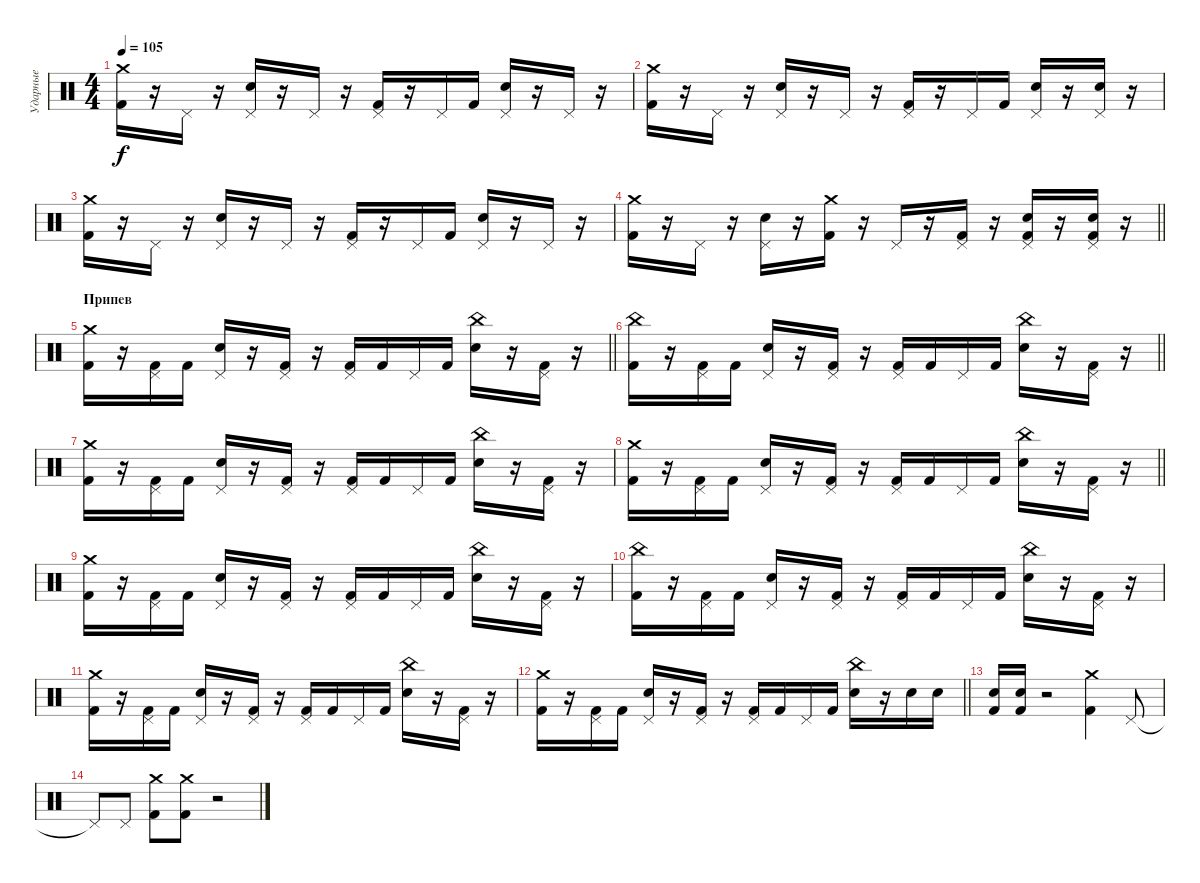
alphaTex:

\track ("Ударные" "Ударные") {instrument percussion}
\staff {score}
\articulation defaults
\ts (4 4)
\tempo 105
\clef neutral
\ks c
("Crash medium (hit)" "Kick (hit) 2").16{dy f} r.16 "Pedal Hi-Hat (hit)".16 r.16 ("Pedal Hi-Hat (hit)" "Electric Snare (hit)").16 r.16 "Pedal Hi-Hat (hit)".16 r.16 ("Pedal Hi-Hat (hit)" "Kick (hit) 2").16 r.16 "Pedal Hi-Hat (hit)".16 "Kick (hit) 2".16 ("Pedal Hi-Hat (hit)" "Electric Snare (hit)").16 r.16 "Pedal Hi-Hat (hit)".16 r.16 |
("Crash medium (hit)" "Kick (hit) 2").16 r.16 "Pedal Hi-Hat (hit)".16 r.16 ("Pedal Hi-Hat (hit)" "Electric Snare (hit)").16 r.16 "Pedal Hi-Hat (hit)".16 r.16 ("Pedal Hi-Hat (hit)" "Kick (hit) 2").16 r.16 "Pedal Hi-Hat (hit)".16 "Kick (hit) 2".16 ("Pedal Hi-Hat (hit)" "Electric Snare (hit)").16 r.16 ("Pedal Hi-Hat (hit)" "Electric Snare (hit)").16 r.16 |
("Crash medium (hit)" "Kick (hit) 2").16 r.16 "Pedal Hi-Hat (hit)".16 r.16 ("Pedal Hi-Hat (hit)" "Electric Snare (hit)").16 r.16 "Pedal Hi-Hat (hit)".16 r.16 ("Pedal Hi-Hat (hit)" "Kick (hit) 2").16 r.16 "Pedal Hi-Hat (hit)".16 "Kick (hit) 2".16 ("Pedal Hi-Hat (hit)" "Electric Snare (hit)").16 r.16 "Pedal Hi-Hat (hit)".16 r.16 |
\barLineRight lightlight
("Crash medium (hit)" "Kick (hit) 2").16 r.16 "Pedal Hi-Hat (hit)".16 r.16 ("Pedal Hi-Hat (hit)" "Electric Snare (hit)").16 r.16 ("Crash medium (hit)" "Kick (hit) 2").16 r.16 "Pedal Hi-Hat (hit)".16 r.16 ("Pedal Hi-Hat (hit)" "Kick (hit) 2").16 r.16 ("Pedal Hi-Hat (hit)" "Electric Snare (hit)" "Kick (hit) 2").16 r.16 ("Pedal Hi-Hat (hit)" "Electric Snare (hit)" "Kick (hit) 2").16 r.16 |
\section ("" "Припев")
\barLineRight lightlight
("Crash medium (hit)" "Kick (hit) 2").16 r.16 ("Pedal Hi-Hat (hit)" "Kick (hit) 2").16 "Kick (hit) 2".16 ("Pedal Hi-Hat (hit)" "Electric Snare (hit)").16 r.16 ("Pedal Hi-Hat (hit)" "Kick (hit) 2").16 r.16 ("Pedal Hi-Hat (hit)" "Kick (hit) 2").16 "Kick (hit) 2".16 "Pedal Hi-Hat (hit)".16 "Kick (hit) 2".16 ("China (hit)" "Electric Snare (hit)").16 r.16 ("Pedal Hi-Hat (hit)" "Kick (hit) 2").16 r.16 |
\barLineRight lightlight
("China (hit)" "Kick (hit) 2").16 r.16 ("Pedal Hi-Hat (hit)" "Kick (hit) 2").16 "Kick (hit) 2".16 ("Pedal Hi-Hat (hit)" "Electric Snare (hit)").16 r.16 ("Pedal Hi-Hat (hit)" "Kick (hit) 2").16 r.16 ("Pedal Hi-Hat (hit)" "Kick (hit) 2").16 "Kick (hit) 2".16 "Pedal Hi-Hat (hit)".16 "Kick (hit) 2".16 ("China (hit)" "Electric Snare (hit)").16 r.16 ("Pedal Hi-Hat (hit)" "Kick (hit) 2").16 r.16 |
("Crash medium (hit)" "Kick (hit) 2").16 r.16 ("Pedal Hi-Hat (hit)" "Kick (hit) 2").16 "Kick (hit) 2".16 ("Pedal Hi-Hat (hit)" "Electric Snare (hit)").16 r.16 ("Pedal Hi-Hat (hit)" "Kick (hit) 2").16 r.16 ("Pedal Hi-Hat (hit)" "Kick (hit) 2").16 "Kick (hit) 2".16 "Pedal Hi-Hat (hit)".16 "Kick (hit) 2".16 ("China (hit)" "Electric Snare (hit)").16 r.16 ("Pedal Hi-Hat (hit)" "Kick (hit) 2").16 r.16 |
\barLineRight lightlight
("Crash medium (hit)" "Kick (hit) 2").16 r.16 ("Pedal Hi-Hat (hit)" "Kick (hit) 2").16 "Kick (hit) 2".16 ("Pedal Hi-Hat (hit)" "Electric Snare (hit)").16 r.16 ("Pedal Hi-Hat (hit)" "Kick (hit) 2").16 r.16 ("Pedal Hi-Hat (hit)" "Kick (hit) 2").16 "Kick (hit) 2".16 "Pedal Hi-Hat (hit)".16 "Kick (hit) 2".16 ("China (hit)" "Electric Snare (hit)").16 r.16 ("Pedal Hi-Hat (hit)" "Kick (hit) 2").16 r.16 |
("Crash medium (hit)" "Kick (hit) 2").16 r.16 ("Pedal Hi-Hat (hit)" "Kick (hit) 2").16 "Kick (hit) 2".16 ("Pedal Hi-Hat (hit)" "Electric Snare (hit)").16 r.16 ("Pedal Hi-Hat (hit)" "Kick (hit) 2").16 r.16 ("Pedal Hi-Hat (hit)" "Kick (hit) 2").16 "Kick (hit) 2".16 "Pedal Hi-Hat (hit)".16 "Kick (hit) 2".16 ("China (hit)" "Electric Snare (hit)").16 r.16 ("Pedal Hi-Hat (hit)" "Kick (hit) 2").16 r.16 |
("China (hit)" "Kick (hit) 2").16 r.16 ("Pedal Hi-Hat (hit)" "Kick (hit) 2").16 "Kick (hit) 2".16 ("Pedal Hi-Hat (hit)" "Electric Snare (hit)").16 r.16 ("Pedal Hi-Hat (hit)" "Kick (hit) 2").16 r.16 ("Pedal Hi-Hat (hit)" "Kick (hit) 2").16 "Kick (hit) 2".16 "Pedal Hi-Hat (hit)".16 "Kick (hit) 2".16 ("China (hit)" "Electric Snare (hit)").16 r.16 ("Pedal Hi-Hat (hit)" "Kick (hit) 2").16 r.16 |
("Crash medium (hit)" "Kick (hit) 2").16 r.16 ("Pedal Hi-Hat (hit)" "Kick (hit) 2").16 "Kick (hit) 2".16 ("Pedal Hi-Hat (hit)" "Electric Snare (hit)").16 r.16 ("Pedal Hi-Hat (hit)" "Kick (hit) 2").16 r.16 ("Pedal Hi-Hat (hit)" "Kick (hit) 2").16 "Kick (hit) 2".16 "Pedal Hi-Hat (hit)".16 "Kick (hit) 2".16 ("China (hit)" "Electric Snare (hit)").16 r.16 ("Pedal Hi-Hat (hit)" "Kick (hit) 2").16 r.16 |
\barLineRight lightlight
("Crash medium (hit)" "Kick (hit) 2").16 r.16 ("Pedal Hi-Hat (hit)" "Kick (hit) 2").16 "Kick (hit) 2".16 ("Pedal Hi-Hat (hit)" "Electric Snare (hit)").16 r.16 ("Pedal Hi-Hat (hit)" "Kick (hit) 2").16 r.16 ("Pedal Hi-Hat (hit)" "Kick (hit) 2").16 "Kick (hit) 2".16 "Pedal Hi-Hat (hit)".16 "Kick (hit) 2".16 ("China (hit)" "Electric Snare (hit)").16 r.16 "Electric Snare (hit)".16 "Electric Snare (hit)".16 |
("Electric Snare (hit)" "Kick (hit) 2").16 ("Electric Snare (hit)" "Kick (hit) 2").16 r.2 ("Crash medium (hit)" "Kick (hit) 2").4 "Pedal Hi-Hat (hit)".8 |
"Pedal Hi-Hat (hit)"{t}.8 "Pedal Hi-Hat (hit)".8 ("Crash medium (hit)" "Kick (hit) 2").8 ("Crash medium (hit)" "Kick (hit) 2").8 r.2
